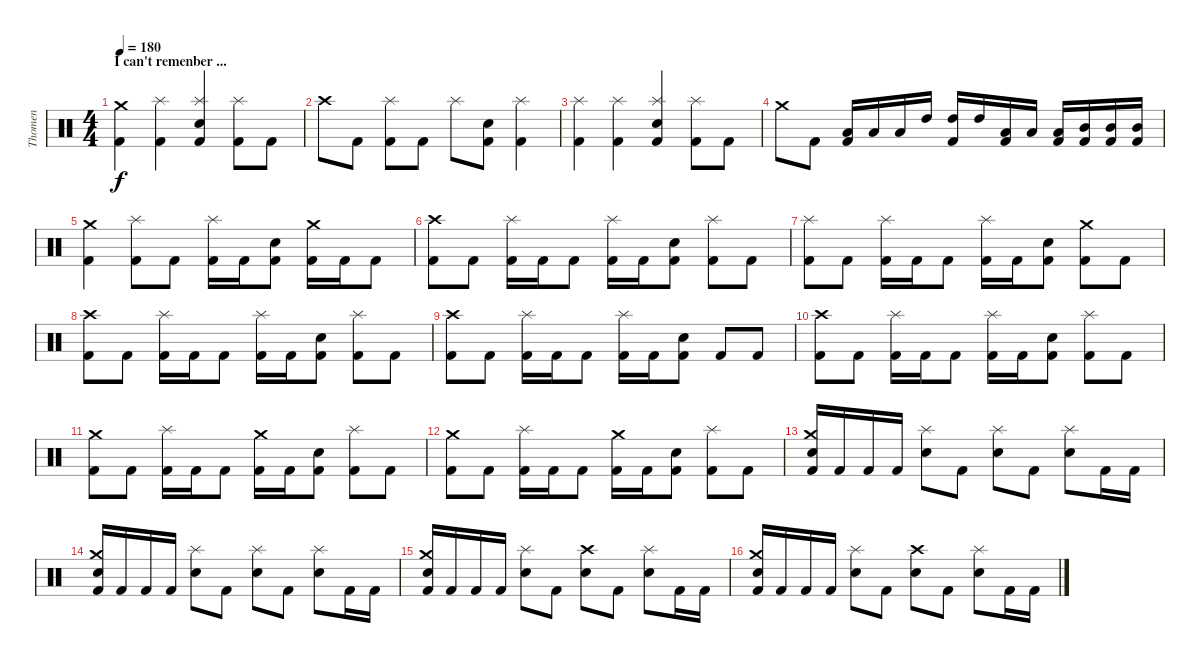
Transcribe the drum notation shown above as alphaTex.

\track ("Thomen" "Thomen") {instrument percussion}
\staff {score}
\articulation defaults
\ts (4 4)
\section ("" "I can't remenber ...")
\tempo 180
\clef neutral
\ks c
("Kick (hit) 2" "Crash medium (hit)").4{dy f} ("Kick (hit) 2" "Splash (hit)").4 ("Kick (hit) 2" "Electric Snare (hit)" "Splash (hit)").4 ("Kick (hit) 2" "Splash (hit)").8 "Kick (hit) 2".8 |
"Crash high (hit)".8 "Kick (hit) 2".8 ("Kick (hit) 2" "Splash (hit)").8 "Kick (hit) 2".8 "Splash (hit)".8 ("Kick (hit) 2" "Electric Snare (hit)").8 ("Kick (hit) 2" "Splash (hit)").4 |
("Kick (hit) 2" "Splash (hit)").4 ("Kick (hit) 2" "Splash (hit)").4 ("Kick (hit) 2" "Electric Snare (hit)" "Splash (hit)").4 ("Kick (hit) 2" "Splash (hit)").8 "Kick (hit) 2".8 |
"Crash medium (hit)".8 "Kick (hit) 2".8 ("Kick (hit) 2" "Low Tom (hit)").16 "Low Tom (hit)".16 "Low Tom (hit)".16 "High Tom (hit)".16 ("Kick (hit) 2" "High Tom (hit)").16 "High Tom (hit)".16 ("Kick (hit) 2" "Low Tom (hit)").16 "Low Tom (hit)".16 ("Kick (hit) 2" "Low Tom (hit)").16 ("Kick (hit) 2" "Mid Tom (hit)").16 ("Kick (hit) 2" "Mid Tom (hit)").16 ("Kick (hit) 2" "Mid Tom (hit)").16 |
("Kick (hit) 2" "Crash medium (hit)").4 ("Kick (hit) 2" "Splash (hit)").8 "Kick (hit) 2".8 ("Kick (hit) 2" "Splash (hit)").16 "Kick (hit) 2".16 ("Kick (hit) 2" "Electric Snare (hit)").8 ("Kick (hit) 2" "Crash medium (hit)").16 "Kick (hit) 2".16 "Kick (hit) 2".8 |
("Kick (hit) 2" "Crash high (hit)").8 "Kick (hit) 2".8 ("Kick (hit) 2" "Splash (hit)").16 "Kick (hit) 2".16 "Kick (hit) 2".8 ("Kick (hit) 2" "Splash (hit)").16 "Kick (hit) 2".16 ("Kick (hit) 2" "Electric Snare (hit)").8 ("Kick (hit) 2" "Splash (hit)").8 "Kick (hit) 2".8 |
("Kick (hit) 2" "Splash (hit)").8 "Kick (hit) 2".8 ("Kick (hit) 2" "Splash (hit)").16 "Kick (hit) 2".16 "Kick (hit) 2".8 ("Kick (hit) 2" "Splash (hit)").16 "Kick (hit) 2".16 ("Kick (hit) 2" "Electric Snare (hit)").8 ("Kick (hit) 2" "Crash medium (hit)").8 "Kick (hit) 2".8 |
("Kick (hit) 2" "Crash high (hit)").8 "Kick (hit) 2".8 ("Kick (hit) 2" "Splash (hit)").16 "Kick (hit) 2".16 "Kick (hit) 2".8 ("Kick (hit) 2" "Splash (hit)").16 "Kick (hit) 2".16 ("Kick (hit) 2" "Electric Snare (hit)").8 ("Kick (hit) 2" "Splash (hit)").8 "Kick (hit) 2".8 |
("Kick (hit) 2" "Crash high (hit)").8 "Kick (hit) 2".8 ("Kick (hit) 2" "Splash (hit)").16 "Kick (hit) 2".16 "Kick (hit) 2".8 ("Kick (hit) 2" "Splash (hit)").16 "Kick (hit) 2".16 ("Kick (hit) 2" "Electric Snare (hit)").8 "Kick (hit) 2".8 "Kick (hit) 2".8 |
("Kick (hit) 2" "Crash high (hit)").8 "Kick (hit) 2".8 ("Kick (hit) 2" "Splash (hit)").16 "Kick (hit) 2".16 "Kick (hit) 2".8 ("Kick (hit) 2" "Splash (hit)").16 "Kick (hit) 2".16 ("Kick (hit) 2" "Electric Snare (hit)").8 ("Kick (hit) 2" "Splash (hit)").8 "Kick (hit) 2".8 |
("Kick (hit) 2" "Crash medium (hit)").8 "Kick (hit) 2".8 ("Kick (hit) 2" "Splash (hit)").16 "Kick (hit) 2".16 "Kick (hit) 2".8 ("Kick (hit) 2" "Crash medium (hit)").16 "Kick (hit) 2".16 ("Kick (hit) 2" "Electric Snare (hit)").8 ("Kick (hit) 2" "Splash (hit)").8 "Kick (hit) 2".8 |
("Kick (hit) 2" "Crash medium (hit)").8 "Kick (hit) 2".8 ("Kick (hit) 2" "Splash (hit)").16 "Kick (hit) 2".16 "Kick (hit) 2".8 ("Kick (hit) 2" "Crash medium (hit)").16 "Kick (hit) 2".16 ("Kick (hit) 2" "Electric Snare (hit)").8 ("Kick (hit) 2" "Splash (hit)").8 "Kick (hit) 2".8 |
("Kick (hit) 2" "Electric Snare (hit)" "Crash medium (hit)").16 "Kick (hit) 2".16 "Kick (hit) 2".16 "Kick (hit) 2".16 ("Electric Snare (hit)" "Splash (hit)").8 "Kick (hit) 2".8 ("Electric Snare (hit)" "Splash (hit)").8 "Kick (hit) 2".8 ("Electric Snare (hit)" "Splash (hit)").8 "Kick (hit) 2".16 "Kick (hit) 2".16 |
("Kick (hit) 2" "Electric Snare (hit)" "Crash medium (hit)").16 "Kick (hit) 2".16 "Kick (hit) 2".16 "Kick (hit) 2".16 ("Electric Snare (hit)" "Splash (hit)").8 "Kick (hit) 2".8 ("Electric Snare (hit)" "Splash (hit)").8 "Kick (hit) 2".8 ("Electric Snare (hit)" "Splash (hit)").8 "Kick (hit) 2".16 "Kick (hit) 2".16 |
("Kick (hit) 2" "Electric Snare (hit)" "Crash medium (hit)").16 "Kick (hit) 2".16 "Kick (hit) 2".16 "Kick (hit) 2".16 ("Electric Snare (hit)" "Splash (hit)").8 "Kick (hit) 2".8 ("Electric Snare (hit)" "Crash high (hit)").8 "Kick (hit) 2".8 ("Electric Snare (hit)" "Splash (hit)").8 "Kick (hit) 2".16 "Kick (hit) 2".16 |
("Kick (hit) 2" "Electric Snare (hit)" "Crash medium (hit)").16 "Kick (hit) 2".16 "Kick (hit) 2".16 "Kick (hit) 2".16 ("Electric Snare (hit)" "Splash (hit)").8 "Kick (hit) 2".8 ("Electric Snare (hit)" "Crash high (hit)").8 "Kick (hit) 2".8 ("Electric Snare (hit)" "Splash (hit)").8 "Kick (hit) 2".16 "Kick (hit) 2".16
